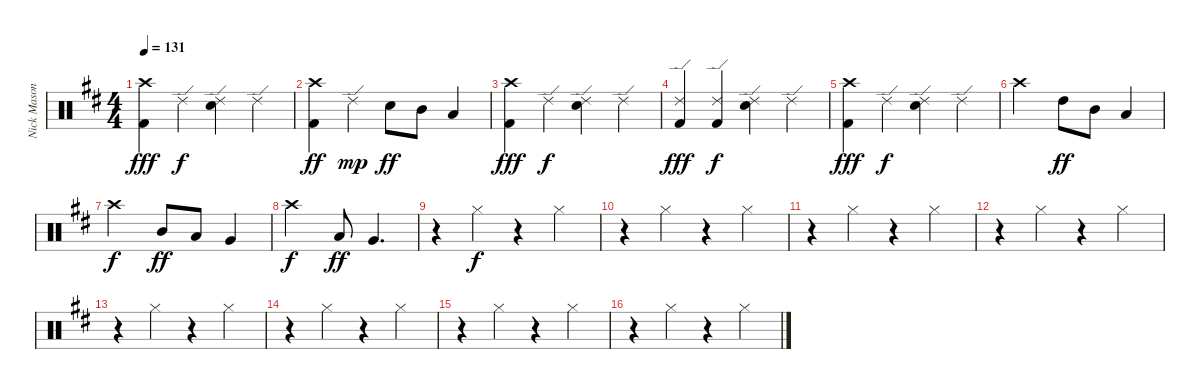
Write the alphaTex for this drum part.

\track ("Nick Mason" "Nick Mason") {instrument percussion}
\staff {score}
\articulation defaults
\ts (4 4)
\tempo 131
\clef neutral
\ks d
("Crash high (hit)" "Kick (hit) 2").4{dy fff} "Ride (edge) 2".4{dy f} ("Ride (edge) 2" "Electric Snare (hit)").4 "Ride (edge) 2".4 |
("Crash high (hit)" "Kick (hit) 2").4{dy ff} "Ride (edge) 2".4{dy mp} "Electric Snare (hit)".8{dy ff} "Mid Tom (hit)".8 "Low Tom (hit)".4 |
("Crash high (hit)" "Kick (hit) 2").4{dy fff} "Ride (edge) 2".4{dy f} ("Ride (edge) 2" "Electric Snare (hit)").4 "Ride (edge) 2".4 |
("Ride (edge) 2" "Kick (hit) 2").4{dy fff} ("Ride (edge) 2" "Kick (hit) 2").4{dy f} ("Ride (edge) 2" "Electric Snare (hit)").4 "Ride (edge) 2".4 |
("Crash high (hit)" "Kick (hit) 2").4{dy fff} "Ride (edge) 2".4{dy f} ("Ride (edge) 2" "Electric Snare (hit)").4 "Ride (edge) 2".4 |
"Crash high (hit)".2 "High Tom (hit)".8{dy ff} "Mid Tom (hit)".8 "Low Tom (hit)".4 |
"Crash high (hit)".2{dy f} "Mid Tom (hit)".8{dy ff} "Low Tom (hit)".8 "Very Low Tom (hit)".4 |
"Crash high (hit)".2{dy f} "Low Tom (hit)".8{dy ff} "Very Low Tom (hit)".4{d} |
r.4{volume 10} "Hi-Hat (closed)".4{dy f} r.4 "Hi-Hat (closed)".4 |
r.4 "Hi-Hat (closed)".4 r.4 "Hi-Hat (closed)".4 |
r.4 "Hi-Hat (closed)".4 r.4 "Hi-Hat (closed)".4 |
r.4 "Hi-Hat (closed)".4 r.4 "Hi-Hat (closed)".4 |
r.4 "Hi-Hat (closed)".4 r.4 "Hi-Hat (closed)".4 |
r.4 "Hi-Hat (closed)".4 r.4 "Hi-Hat (closed)".4 |
r.4 "Hi-Hat (closed)".4 r.4 "Hi-Hat (closed)".4 |
r.4 "Hi-Hat (closed)".4 r.4 "Hi-Hat (closed)".4
